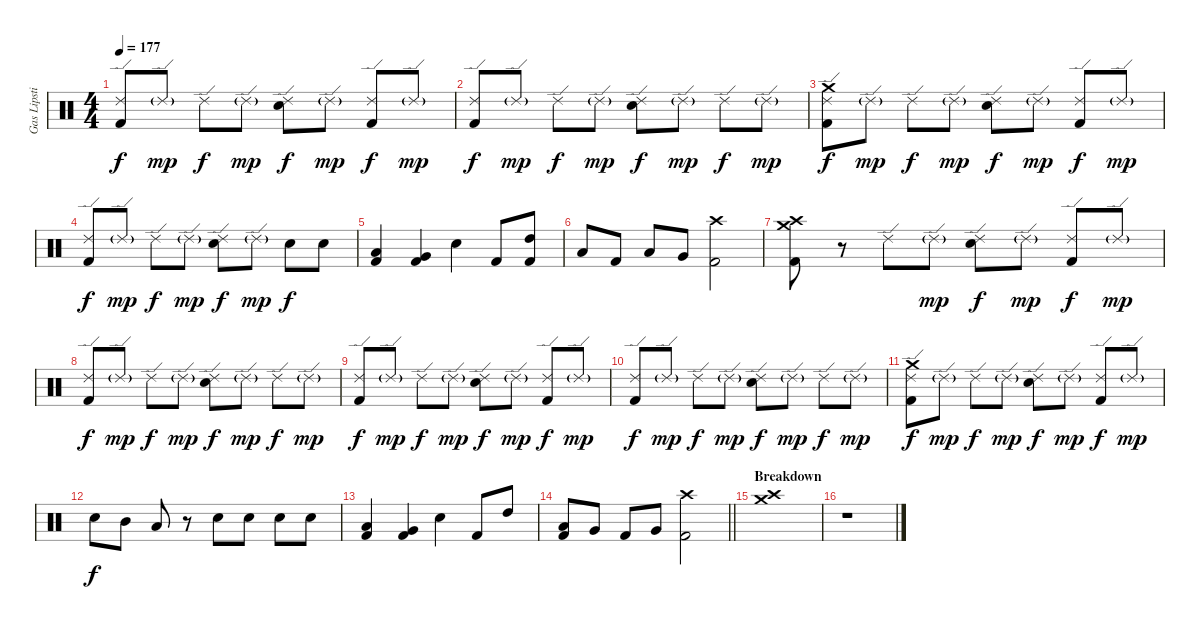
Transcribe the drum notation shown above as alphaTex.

\track ("Gas Lipstick (Drums)" "Gas Lipsti") {instrument percussion}
\staff {score}
\articulation defaults
\ts (4 4)
\tempo 177
\clef neutral
\ks c
("Ride (edge) 2" "Kick (hit) 2").8{dy f} "Ride (edge) 2"{g}.8{dy mp} "Ride (edge) 2".8{dy f} "Ride (edge) 2"{g}.8{dy mp} ("Ride (edge) 2" "Snare (hit) 2").8{dy f} "Ride (edge) 2"{g}.8{dy mp} ("Ride (edge) 2" "Kick (hit) 2").8{dy f} "Ride (edge) 2"{g}.8{dy mp} |
("Ride (edge) 2" "Kick (hit) 2").8{dy f} "Ride (edge) 2"{g}.8{dy mp} "Ride (edge) 2".8{dy f} "Ride (edge) 2"{g}.8{dy mp} ("Ride (edge) 2" "Snare (hit) 2").8{dy f} "Ride (edge) 2"{g}.8{dy mp} "Ride (edge) 2".8{dy f} "Ride (edge) 2"{g}.8{dy mp} |
("Crash medium (hit)" "Ride (edge) 2" "Kick (hit) 2").8{dy f} "Ride (edge) 2"{g}.8{dy mp} "Ride (edge) 2".8{dy f} "Ride (edge) 2"{g}.8{dy mp} ("Ride (edge) 2" "Snare (hit) 2").8{dy f} "Ride (edge) 2"{g}.8{dy mp} ("Ride (edge) 2" "Kick (hit) 2").8{dy f} "Ride (edge) 2"{g}.8{dy mp} |
("Ride (edge) 2" "Kick (hit) 2").8{dy f} "Ride (edge) 2"{g}.8{dy mp} "Ride (edge) 2".8{dy f} "Ride (edge) 2"{g}.8{dy mp} ("Ride (edge) 2" "Snare (hit) 2").8{dy f} "Ride (edge) 2"{g}.8{dy mp} "Snare (hit) 2".8{dy f} "Snare (hit) 2".8 |
("Low Tom (hit)" "Kick (hit) 2").4 ("Very Low Tom (hit)" "Kick (hit) 2").4 "Snare (hit) 2".4 "Kick (hit) 2".8 ("High Tom (hit)" "Kick (hit) 2").8 |
"Low Tom (hit)".8 "Kick (hit) 2".8 "Low Tom (hit)".8 "Very Low Tom (hit)".8 ("Crash high (hit)" "Kick (hit) 2").2 |
("Crash medium (hit)" "Crash high (hit)" "Kick (hit) 2").8 r.8 "Ride (edge) 2".8 "Ride (edge) 2"{g}.8{dy mp} ("Ride (edge) 2" "Snare (hit) 2").8{dy f} "Ride (edge) 2"{g}.8{dy mp} ("Ride (edge) 2" "Kick (hit) 2").8{dy f} "Ride (edge) 2"{g}.8{dy mp} |
("Ride (edge) 2" "Kick (hit) 2").8{dy f} "Ride (edge) 2"{g}.8{dy mp} "Ride (edge) 2".8{dy f} "Ride (edge) 2"{g}.8{dy mp} ("Ride (edge) 2" "Snare (hit) 2").8{dy f} "Ride (edge) 2"{g}.8{dy mp} "Ride (edge) 2".8{dy f} "Ride (edge) 2"{g}.8{dy mp} |
("Ride (edge) 2" "Kick (hit) 2").8{dy f} "Ride (edge) 2"{g}.8{dy mp} "Ride (edge) 2".8{dy f} "Ride (edge) 2"{g}.8{dy mp} ("Ride (edge) 2" "Snare (hit) 2").8{dy f} "Ride (edge) 2"{g}.8{dy mp} ("Ride (edge) 2" "Kick (hit) 2").8{dy f} "Ride (edge) 2"{g}.8{dy mp} |
("Ride (edge) 2" "Kick (hit) 2").8{dy f} "Ride (edge) 2"{g}.8{dy mp} "Ride (edge) 2".8{dy f} "Ride (edge) 2"{g}.8{dy mp} ("Ride (edge) 2" "Snare (hit) 2").8{dy f} "Ride (edge) 2"{g}.8{dy mp} "Ride (edge) 2".8{dy f} "Ride (edge) 2"{g}.8{dy mp} |
("Crash medium (hit)" "Ride (edge) 2" "Kick (hit) 2").8{dy f} "Ride (edge) 2"{g}.8{dy mp} "Ride (edge) 2".8{dy f} "Ride (edge) 2"{g}.8{dy mp} ("Ride (edge) 2" "Snare (hit) 2").8{dy f} "Ride (edge) 2"{g}.8{dy mp} ("Ride (edge) 2" "Kick (hit) 2").8{dy f} "Ride (edge) 2"{g}.8{dy mp} |
"Snare (hit) 2".8{dy f} "Mid Tom (hit)".8 "Low Tom (hit)".8 r.8 "Snare (hit) 2".8 "Snare (hit) 2".8 "Snare (hit) 2".8 "Snare (hit) 2".8 |
("Low Tom (hit)" "Kick (hit) 2").4 ("Very Low Tom (hit)" "Kick (hit) 2").4 "Snare (hit) 2".4 "Kick (hit) 2".8 "High Tom (hit)".8 |
\barLineRight lightlight
("Low Tom (hit)" "Kick (hit) 2").8 "Very Low Tom (hit)".8 "Kick (hit) 2".8 "Very Low Tom (hit)".8 ("Crash high (hit)" "Kick (hit) 2").2 |
\section ("" "Breakdown")
("Crash medium (hit)" "Crash high (hit)").1 |
r.1
